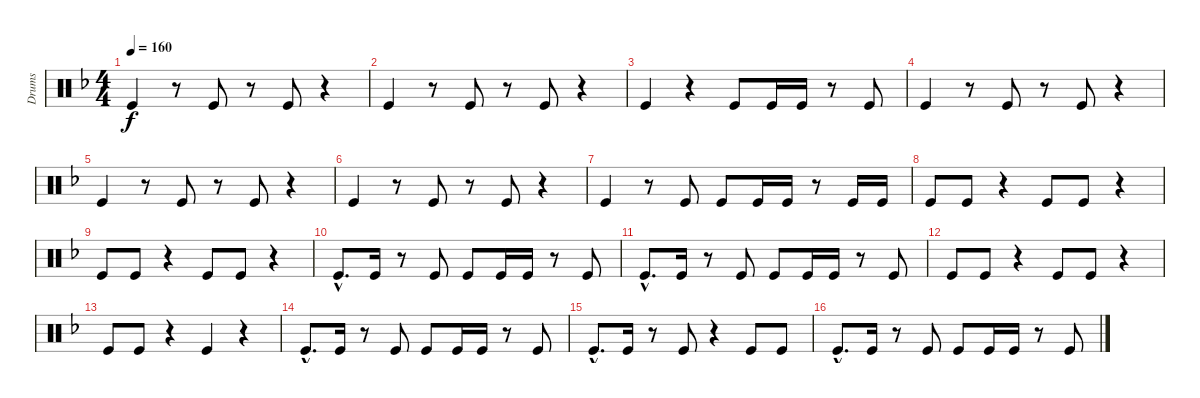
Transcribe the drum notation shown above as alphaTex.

\track ("Drums" "Drums") {instrument percussion}
\staff {score}
\articulation defaults
\ts (4 4)
\tempo 160
\clef neutral
\ks f "Kick (hit)".4{dy f}
r.8 "Kick (hit)".8 r.8 "Kick (hit)".8 r.4 |
"Kick (hit)".4 r.8 "Kick (hit)".8 r.8 "Kick (hit)".8 r.4 |
"Kick (hit)".4 r.4 "Kick (hit)".8 "Kick (hit)".16 "Kick (hit)".16 r.8 "Kick (hit)".8 |
"Kick (hit)".4 r.8 "Kick (hit)".8 r.8 "Kick (hit)".8 r.4 |
"Kick (hit)".4 r.8 "Kick (hit)".8 r.8 "Kick (hit)".8 r.4 |
"Kick (hit)".4 r.8 "Kick (hit)".8 r.8 "Kick (hit)".8 r.4 |
"Kick (hit)".4 r.8 "Kick (hit)".8 "Kick (hit)".8 "Kick (hit)".16 "Kick (hit)".16 r.8 "Kick (hit)".16 "Kick (hit)".16 |
"Kick (hit)".8 "Kick (hit)".8 r.4 "Kick (hit)".8 "Kick (hit)".8 r.4 |
"Kick (hit)".8 "Kick (hit)".8 r.4 "Kick (hit)".8 "Kick (hit)".8 r.4 |
"Kick (hit)"{hac}.8{d} "Kick (hit)".16 r.8 "Kick (hit)".8 "Kick (hit)".8 "Kick (hit)".16 "Kick (hit)".16 r.8 "Kick (hit)".8 |
"Kick (hit)"{hac}.8{d} "Kick (hit)".16 r.8 "Kick (hit)".8 "Kick (hit)".8 "Kick (hit)".16 "Kick (hit)".16 r.8 "Kick (hit)".8 |
"Kick (hit)".8 "Kick (hit)".8 r.4 "Kick (hit)".8 "Kick (hit)".8 r.4 |
"Kick (hit)".8 "Kick (hit)".8 r.4 "Kick (hit)".4 r.4 |
"Kick (hit)"{hac}.8{d} "Kick (hit)".16 r.8 "Kick (hit)".8 "Kick (hit)".8 "Kick (hit)".16 "Kick (hit)".16 r.8 "Kick (hit)".8 |
"Kick (hit)"{hac}.8{d} "Kick (hit)".16 r.8 "Kick (hit)".8 r.4 "Kick (hit)".8 "Kick (hit)".8 |
"Kick (hit)"{hac}.8{d} "Kick (hit)".16 r.8 "Kick (hit)".8 "Kick (hit)".8 "Kick (hit)".16 "Kick (hit)".16 r.8 "Kick (hit)".8
